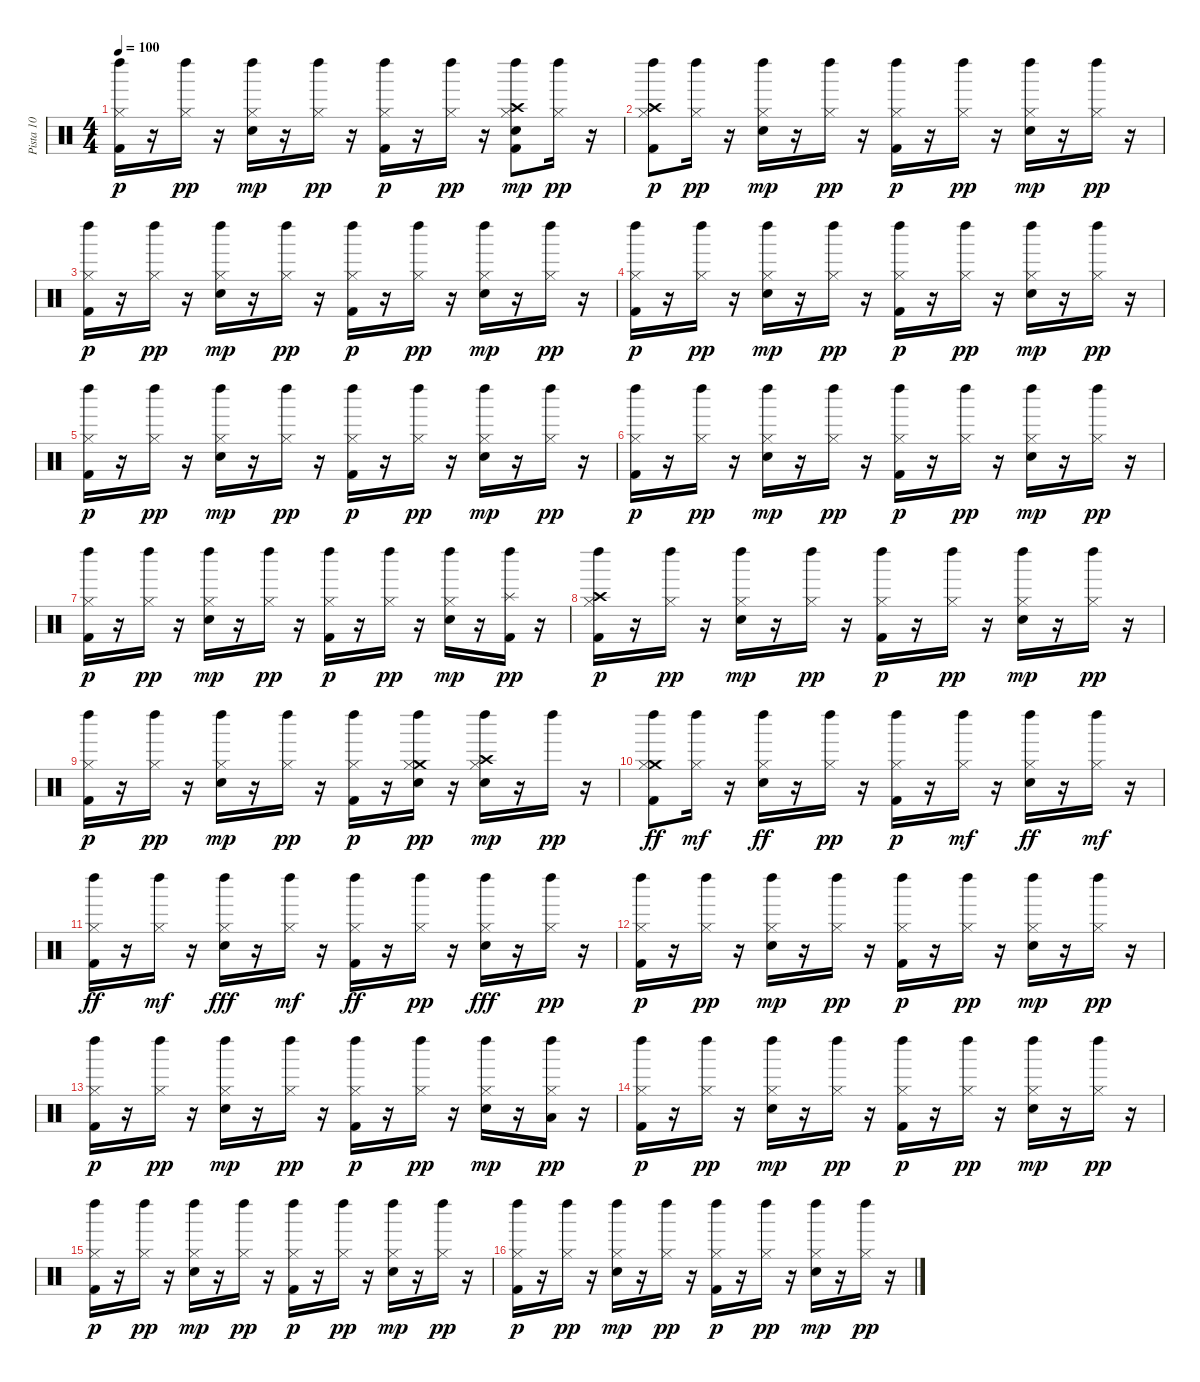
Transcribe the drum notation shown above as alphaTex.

\track ("Pista 10" "Pista 10") {instrument percussion}
\staff {score}
\articulation defaults
\ts (4 4)
\tempo 100
\clef neutral
\ks c
("Kick (hit) 2" "Hi-Hat (closed)" "Left Maraca (hit)").16{dy p} r.16 ("Hi-Hat (closed)" "Left Maraca (hit)").16{dy pp} r.16 ("Snare (hit) 2" "Hi-Hat (closed)" "Left Maraca (hit)").16{dy mp} r.16 ("Hi-Hat (closed)" "Left Maraca (hit)").16{dy pp} r.16 ("Kick (hit) 2" "Hi-Hat (closed)" "Left Maraca (hit)").16{dy p} r.16 ("Hi-Hat (closed)" "Left Maraca (hit)").16{dy pp} r.16 ("Kick (hit) 2" "Crash high (hit)" "Snare (hit) 2" "Hi-Hat (closed)" "Left Maraca (hit)").8{dy mp} ("Hi-Hat (closed)" "Left Maraca (hit)").16{dy pp} r.16 |
("Crash high (hit)" "Kick (hit) 2" "Hi-Hat (closed)" "Left Maraca (hit)").8{dy p} ("Hi-Hat (closed)" "Left Maraca (hit)").16{dy pp} r.16 ("Snare (hit) 2" "Hi-Hat (closed)" "Left Maraca (hit)").16{dy mp} r.16 ("Hi-Hat (closed)" "Left Maraca (hit)").16{dy pp} r.16 ("Kick (hit) 2" "Hi-Hat (closed)" "Left Maraca (hit)").16{dy p} r.16 ("Hi-Hat (closed)" "Left Maraca (hit)").16{dy pp} r.16 ("Snare (hit) 2" "Hi-Hat (closed)" "Left Maraca (hit)").16{dy mp} r.16 ("Hi-Hat (closed)" "Left Maraca (hit)").16{dy pp} r.16 |
("Kick (hit) 2" "Hi-Hat (closed)" "Left Maraca (hit)").16{dy p} r.16 ("Hi-Hat (closed)" "Left Maraca (hit)").16{dy pp} r.16 ("Snare (hit) 2" "Hi-Hat (closed)" "Left Maraca (hit)").16{dy mp} r.16 ("Hi-Hat (closed)" "Left Maraca (hit)").16{dy pp} r.16 ("Kick (hit) 2" "Hi-Hat (closed)" "Left Maraca (hit)").16{dy p} r.16 ("Hi-Hat (closed)" "Left Maraca (hit)").16{dy pp} r.16 ("Snare (hit) 2" "Hi-Hat (closed)" "Left Maraca (hit)").16{dy mp} r.16 ("Hi-Hat (closed)" "Left Maraca (hit)").16{dy pp} r.16 |
("Kick (hit) 2" "Hi-Hat (closed)" "Left Maraca (hit)").16{dy p} r.16 ("Hi-Hat (closed)" "Left Maraca (hit)").16{dy pp} r.16 ("Snare (hit) 2" "Hi-Hat (closed)" "Left Maraca (hit)").16{dy mp} r.16 ("Hi-Hat (closed)" "Left Maraca (hit)").16{dy pp} r.16 ("Kick (hit) 2" "Hi-Hat (closed)" "Left Maraca (hit)").16{dy p} r.16 ("Hi-Hat (closed)" "Left Maraca (hit)").16{dy pp} r.16 ("Snare (hit) 2" "Hi-Hat (closed)" "Left Maraca (hit)").16{dy mp} r.16 ("Hi-Hat (closed)" "Left Maraca (hit)").16{dy pp} r.16 |
("Kick (hit) 2" "Hi-Hat (closed)" "Left Maraca (hit)").16{dy p} r.16 ("Hi-Hat (closed)" "Left Maraca (hit)").16{dy pp} r.16 ("Snare (hit) 2" "Hi-Hat (closed)" "Left Maraca (hit)").16{dy mp} r.16 ("Hi-Hat (closed)" "Left Maraca (hit)").16{dy pp} r.16 ("Kick (hit) 2" "Hi-Hat (closed)" "Left Maraca (hit)").16{dy p} r.16 ("Hi-Hat (closed)" "Left Maraca (hit)").16{dy pp} r.16 ("Snare (hit) 2" "Hi-Hat (closed)" "Left Maraca (hit)").16{dy mp} r.16 ("Hi-Hat (closed)" "Left Maraca (hit)").16{dy pp} r.16 |
("Kick (hit) 2" "Hi-Hat (closed)" "Left Maraca (hit)").16{dy p} r.16 ("Hi-Hat (closed)" "Left Maraca (hit)").16{dy pp} r.16 ("Snare (hit) 2" "Hi-Hat (closed)" "Left Maraca (hit)").16{dy mp} r.16 ("Hi-Hat (closed)" "Left Maraca (hit)").16{dy pp} r.16 ("Kick (hit) 2" "Hi-Hat (closed)" "Left Maraca (hit)").16{dy p} r.16 ("Hi-Hat (closed)" "Left Maraca (hit)").16{dy pp} r.16 ("Snare (hit) 2" "Hi-Hat (closed)" "Left Maraca (hit)").16{dy mp} r.16 ("Hi-Hat (closed)" "Left Maraca (hit)").16{dy pp} r.16 |
("Kick (hit) 2" "Hi-Hat (closed)" "Left Maraca (hit)").16{dy p} r.16 ("Hi-Hat (closed)" "Left Maraca (hit)").16{dy pp} r.16 ("Snare (hit) 2" "Hi-Hat (closed)" "Left Maraca (hit)").16{dy mp} r.16 ("Hi-Hat (closed)" "Left Maraca (hit)").16{dy pp} r.16 ("Kick (hit) 2" "Hi-Hat (closed)" "Left Maraca (hit)").16{dy p} r.16 ("Hi-Hat (closed)" "Left Maraca (hit)").16{dy pp} r.16 ("Snare (hit) 2" "Hi-Hat (closed)" "Left Maraca (hit)").16{dy mp} r.16 ("Kick (hit) 2" "Splash (hit)" "Left Maraca (hit)").16{dy pp} r.16 |
("Crash high (hit)" "Kick (hit) 2" "Hi-Hat (closed)" "Left Maraca (hit)").16{dy p} r.16 ("Hi-Hat (closed)" "Left Maraca (hit)").16{dy pp} r.16 ("Snare (hit) 2" "Hi-Hat (closed)" "Left Maraca (hit)").16{dy mp} r.16 ("Hi-Hat (closed)" "Left Maraca (hit)").16{dy pp} r.16 ("Kick (hit) 2" "Hi-Hat (closed)" "Left Maraca (hit)").16{dy p} r.16 ("Hi-Hat (closed)" "Left Maraca (hit)").16{dy pp} r.16 ("Snare (hit) 2" "Hi-Hat (closed)" "Left Maraca (hit)").16{dy mp} r.16 ("Hi-Hat (closed)" "Left Maraca (hit)").16{dy pp} r.16 |
("Kick (hit) 2" "Hi-Hat (closed)" "Left Maraca (hit)").16{dy p} r.16 ("Hi-Hat (closed)" "Left Maraca (hit)").16{dy pp} r.16 ("Snare (hit) 2" "Hi-Hat (closed)" "Left Maraca (hit)").16{dy mp} r.16 ("Hi-Hat (closed)" "Left Maraca (hit)").16{dy pp} r.16 ("Kick (hit) 2" "Hi-Hat (closed)" "Left Maraca (hit)").16{dy p} r.16 ("Crash medium (hit)" "Snare (hit) 2" "Hi-Hat (closed)" "Left Maraca (hit)").16{dy pp} r.16 ("Crash high (hit)" "Snare (hit) 2" "Hi-Hat (closed)" "Left Maraca (hit)").16{dy mp} r.16 "Left Maraca (hit)".16{dy pp} r.16 |
("Crash medium (hit)" "Kick (hit) 2" "Left Maraca (hit)" "Hi-Hat (closed)").8{dy ff} ("Left Maraca (hit)" "Hi-Hat (closed)").16{dy mf} r.16 ("Snare (hit) 2" "Left Maraca (hit)" "Hi-Hat (closed)").16{dy ff} r.16 ("Left Maraca (hit)" "Hi-Hat (closed)").16{dy pp} r.16 ("Kick (hit) 2" "Left Maraca (hit)" "Hi-Hat (closed)").16{dy p} r.16 ("Left Maraca (hit)" "Hi-Hat (closed)").16{dy mf} r.16 ("Snare (hit) 2" "Left Maraca (hit)" "Hi-Hat (closed)").16{dy ff} r.16 ("Left Maraca (hit)" "Hi-Hat (closed)").16{dy mf} r.16 |
("Kick (hit) 2" "Left Maraca (hit)" "Hi-Hat (closed)").16{dy ff} r.16 ("Left Maraca (hit)" "Hi-Hat (closed)").16{dy mf} r.16 ("Snare (hit) 2" "Left Maraca (hit)" "Hi-Hat (closed)").16{dy fff} r.16 ("Left Maraca (hit)" "Hi-Hat (closed)").16{dy mf} r.16 ("Kick (hit) 2" "Left Maraca (hit)" "Hi-Hat (closed)").16{dy ff} r.16 ("Left Maraca (hit)" "Hi-Hat (closed)").16{dy pp} r.16 ("Snare (hit) 2" "Left Maraca (hit)" "Hi-Hat (closed)").16{dy fff} r.16 ("Hi-Hat (closed)" "Left Maraca (hit)").16{dy pp} r.16 |
("Kick (hit) 2" "Hi-Hat (closed)" "Left Maraca (hit)").16{dy p} r.16 ("Hi-Hat (closed)" "Left Maraca (hit)").16{dy pp} r.16 ("Snare (hit) 2" "Hi-Hat (closed)" "Left Maraca (hit)").16{dy mp} r.16 ("Hi-Hat (closed)" "Left Maraca (hit)").16{dy pp} r.16 ("Kick (hit) 2" "Hi-Hat (closed)" "Left Maraca (hit)").16{dy p} r.16 ("Hi-Hat (closed)" "Left Maraca (hit)").16{dy pp} r.16 ("Snare (hit) 2" "Hi-Hat (closed)" "Left Maraca (hit)").16{dy mp} r.16 ("Hi-Hat (closed)" "Left Maraca (hit)").16{dy pp} r.16 |
("Kick (hit) 2" "Hi-Hat (closed)" "Left Maraca (hit)").16{dy p} r.16 ("Hi-Hat (closed)" "Left Maraca (hit)").16{dy pp} r.16 ("Snare (hit) 2" "Hi-Hat (closed)" "Left Maraca (hit)").16{dy mp} r.16 ("Hi-Hat (closed)" "Left Maraca (hit)").16{dy pp} r.16 ("Kick (hit) 2" "Hi-Hat (closed)" "Left Maraca (hit)").16{dy p} r.16 ("Hi-Hat (closed)" "Left Maraca (hit)").16{dy pp} r.16 ("Snare (hit) 2" "Hi-Hat (closed)" "Left Maraca (hit)").16{dy mp} r.16 ("Low Tom (hit)" "Hi-Hat (closed)" "Left Maraca (hit)").16{dy pp} r.16 |
("Kick (hit) 2" "Hi-Hat (closed)" "Left Maraca (hit)").16{dy p} r.16 ("Hi-Hat (closed)" "Left Maraca (hit)").16{dy pp} r.16 ("Snare (hit) 2" "Hi-Hat (closed)" "Left Maraca (hit)").16{dy mp} r.16 ("Hi-Hat (closed)" "Left Maraca (hit)").16{dy pp} r.16 ("Kick (hit) 2" "Hi-Hat (closed)" "Left Maraca (hit)").16{dy p} r.16 ("Hi-Hat (closed)" "Left Maraca (hit)").16{dy pp} r.16 ("Snare (hit) 2" "Hi-Hat (closed)" "Left Maraca (hit)").16{dy mp} r.16 ("Hi-Hat (closed)" "Left Maraca (hit)").16{dy pp} r.16 |
("Kick (hit) 2" "Hi-Hat (closed)" "Left Maraca (hit)").16{dy p} r.16 ("Hi-Hat (closed)" "Left Maraca (hit)").16{dy pp} r.16 ("Snare (hit) 2" "Hi-Hat (closed)" "Left Maraca (hit)").16{dy mp} r.16 ("Hi-Hat (closed)" "Left Maraca (hit)").16{dy pp} r.16 ("Kick (hit) 2" "Hi-Hat (closed)" "Left Maraca (hit)").16{dy p} r.16 ("Hi-Hat (closed)" "Left Maraca (hit)").16{dy pp} r.16 ("Snare (hit) 2" "Hi-Hat (closed)" "Left Maraca (hit)").16{dy mp} r.16 ("Hi-Hat (closed)" "Left Maraca (hit)").16{dy pp} r.16 |
("Kick (hit) 2" "Hi-Hat (closed)" "Left Maraca (hit)").16{dy p} r.16 ("Hi-Hat (closed)" "Left Maraca (hit)").16{dy pp} r.16 ("Snare (hit) 2" "Hi-Hat (closed)" "Left Maraca (hit)").16{dy mp} r.16 ("Hi-Hat (closed)" "Left Maraca (hit)").16{dy pp} r.16 ("Kick (hit) 2" "Hi-Hat (closed)" "Left Maraca (hit)").16{dy p} r.16 ("Hi-Hat (closed)" "Left Maraca (hit)").16{dy pp} r.16 ("Snare (hit) 2" "Hi-Hat (closed)" "Left Maraca (hit)").16{dy mp} r.16 ("Hi-Hat (closed)" "Left Maraca (hit)").16{dy pp} r.16
